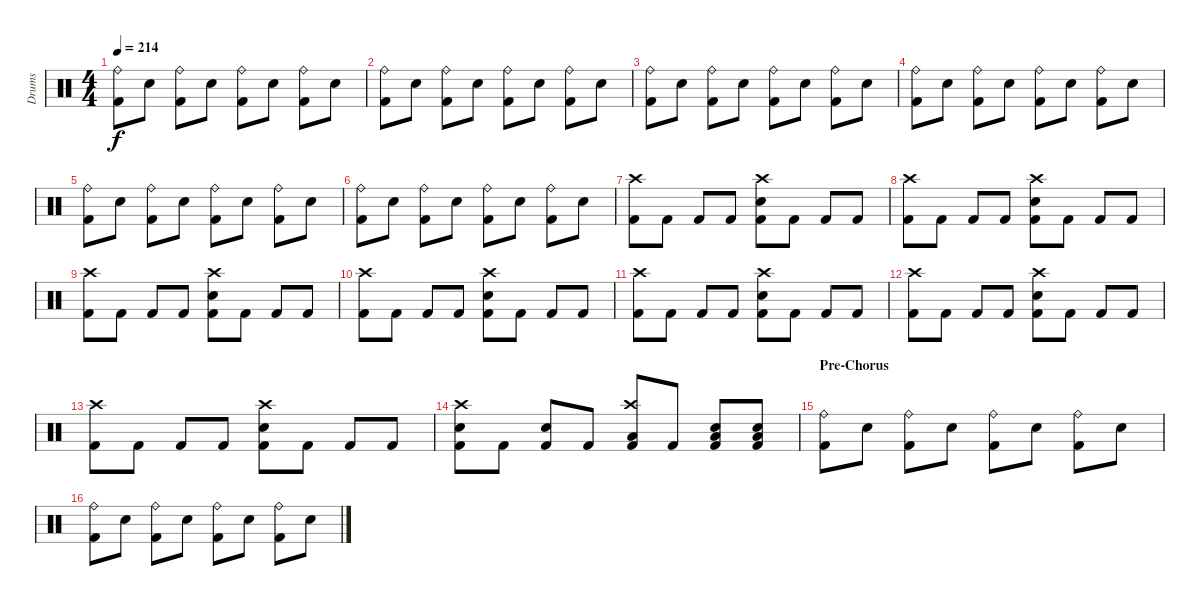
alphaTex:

\track ("Drums" "Drums") {instrument percussion}
\staff {score}
\articulation defaults
\ts (4 4)
\tempo 214
\clef neutral
\ks c
("Ride (bell)" "Kick (hit) 2").8{dy f} "Electric Snare (hit)".8 ("Ride (bell)" "Kick (hit) 2").8 "Electric Snare (hit)".8 ("Ride (bell)" "Kick (hit) 2").8 "Electric Snare (hit)".8 ("Ride (bell)" "Kick (hit) 2").8 "Electric Snare (hit)".8 |
("Ride (bell)" "Kick (hit) 2").8 "Electric Snare (hit)".8 ("Ride (bell)" "Kick (hit) 2").8 "Electric Snare (hit)".8 ("Ride (bell)" "Kick (hit) 2").8 "Electric Snare (hit)".8 ("Ride (bell)" "Kick (hit) 2").8 "Electric Snare (hit)".8 |
("Ride (bell)" "Kick (hit) 2").8 "Electric Snare (hit)".8 ("Ride (bell)" "Kick (hit) 2").8 "Electric Snare (hit)".8 ("Ride (bell)" "Kick (hit) 2").8 "Electric Snare (hit)".8 ("Ride (bell)" "Kick (hit) 2").8 "Electric Snare (hit)".8 |
("Ride (bell)" "Kick (hit) 2").8 "Electric Snare (hit)".8 ("Ride (bell)" "Kick (hit) 2").8 "Electric Snare (hit)".8 ("Ride (bell)" "Kick (hit) 2").8 "Electric Snare (hit)".8 ("Ride (bell)" "Kick (hit) 2").8 "Electric Snare (hit)".8 |
("Ride (bell)" "Kick (hit) 2").8 "Electric Snare (hit)".8 ("Ride (bell)" "Kick (hit) 2").8 "Electric Snare (hit)".8 ("Ride (bell)" "Kick (hit) 2").8 "Electric Snare (hit)".8 ("Ride (bell)" "Kick (hit) 2").8 "Electric Snare (hit)".8 |
("Ride (bell)" "Kick (hit) 2").8 "Electric Snare (hit)".8 ("Ride (bell)" "Kick (hit) 2").8 "Electric Snare (hit)".8 ("Ride (bell)" "Kick (hit) 2").8 "Electric Snare (hit)".8 ("Ride (bell)" "Kick (hit) 2").8 "Electric Snare (hit)".8 |
("Crash high (hit)" "Kick (hit) 2").8 "Kick (hit) 2".8 "Kick (hit) 2".8 "Kick (hit) 2".8 ("Crash high (hit)" "Electric Snare (hit)" "Kick (hit) 2").8 "Kick (hit) 2".8 "Kick (hit) 2".8 "Kick (hit) 2".8 |
("Crash high (hit)" "Kick (hit) 2").8 "Kick (hit) 2".8 "Kick (hit) 2".8 "Kick (hit) 2".8 ("Crash high (hit)" "Electric Snare (hit)" "Kick (hit) 2").8 "Kick (hit) 2".8 "Kick (hit) 2".8 "Kick (hit) 2".8 |
("Crash high (hit)" "Kick (hit) 2").8 "Kick (hit) 2".8 "Kick (hit) 2".8 "Kick (hit) 2".8 ("Crash high (hit)" "Electric Snare (hit)" "Kick (hit) 2").8 "Kick (hit) 2".8 "Kick (hit) 2".8 "Kick (hit) 2".8 |
("Crash high (hit)" "Kick (hit) 2").8 "Kick (hit) 2".8 "Kick (hit) 2".8 "Kick (hit) 2".8 ("Crash high (hit)" "Electric Snare (hit)" "Kick (hit) 2").8 "Kick (hit) 2".8 "Kick (hit) 2".8 "Kick (hit) 2".8 |
("Crash high (hit)" "Kick (hit) 2").8 "Kick (hit) 2".8 "Kick (hit) 2".8 "Kick (hit) 2".8 ("Crash high (hit)" "Electric Snare (hit)" "Kick (hit) 2").8 "Kick (hit) 2".8 "Kick (hit) 2".8 "Kick (hit) 2".8 |
("Crash high (hit)" "Kick (hit) 2").8 "Kick (hit) 2".8 "Kick (hit) 2".8 "Kick (hit) 2".8 ("Crash high (hit)" "Electric Snare (hit)" "Kick (hit) 2").8 "Kick (hit) 2".8 "Kick (hit) 2".8 "Kick (hit) 2".8 |
("Crash high (hit)" "Kick (hit) 2").8 "Kick (hit) 2".8 "Kick (hit) 2".8 "Kick (hit) 2".8 ("Crash high (hit)" "Electric Snare (hit)" "Kick (hit) 2").8 "Kick (hit) 2".8 "Kick (hit) 2".8 "Kick (hit) 2".8 |
("Crash high (hit)" "Electric Snare (hit)" "Kick (hit) 2").8 "Kick (hit) 2".8 ("Electric Snare (hit)" "Kick (hit) 2").8 "Kick (hit) 2".8 ("Crash high (hit)" "Low Floor Tom (hit)" "Kick (hit) 2").8 "Kick (hit) 2".8 ("Low Floor Tom (hit)" "Electric Snare (hit)" "Kick (hit) 2").8 ("Low Floor Tom (hit)" "Electric Snare (hit)" "Kick (hit) 2").8 |
\section ("" "Pre-Chorus")
("Ride (bell)" "Kick (hit) 2").8 "Electric Snare (hit)".8 ("Ride (bell)" "Kick (hit) 2").8 "Electric Snare (hit)".8 ("Ride (bell)" "Kick (hit) 2").8 "Electric Snare (hit)".8 ("Ride (bell)" "Kick (hit) 2").8 "Electric Snare (hit)".8 |
("Ride (bell)" "Kick (hit) 2").8 "Electric Snare (hit)".8 ("Ride (bell)" "Kick (hit) 2").8 "Electric Snare (hit)".8 ("Ride (bell)" "Kick (hit) 2").8 "Electric Snare (hit)".8 ("Ride (bell)" "Kick (hit) 2").8 "Electric Snare (hit)".8
